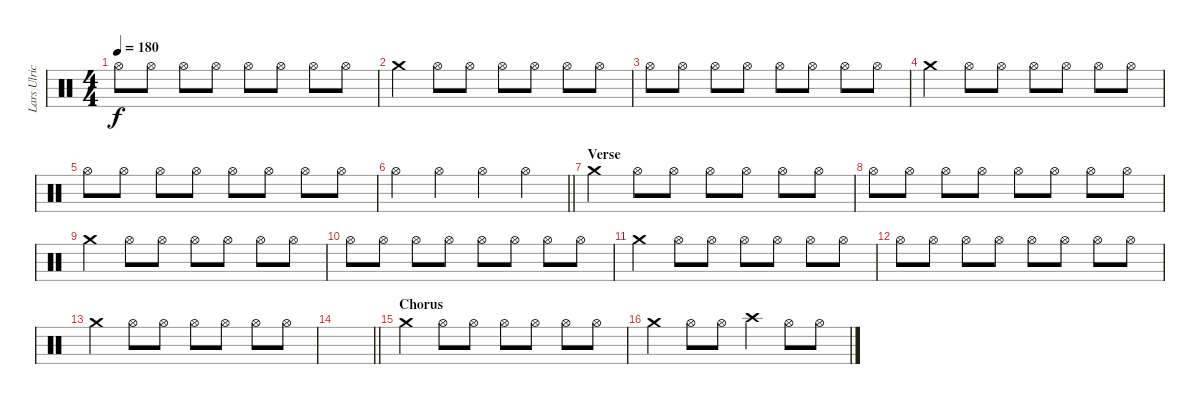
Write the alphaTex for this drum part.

\track ("Lars Ulrich" "Lars Ulric") {instrument percussion}
\staff {score}
\articulation defaults
\ts (4 4)
\tempo 180
\clef neutral
\ks c "Hi-Hat (open)".8{dy f} "Hi-Hat (open)".8 "Hi-Hat (open)".8 "Hi-Hat (open)".8 "Hi-Hat (open)".8 "Hi-Hat (open)".8 "Hi-Hat (open)".8 "Hi-Hat (open)".8
|
"Crash medium (hit)".4 "Hi-Hat (open)".8 "Hi-Hat (open)".8 "Hi-Hat (open)".8 "Hi-Hat (open)".8 "Hi-Hat (open)".8 "Hi-Hat (open)".8 |
"Hi-Hat (open)".8 "Hi-Hat (open)".8 "Hi-Hat (open)".8 "Hi-Hat (open)".8 "Hi-Hat (open)".8 "Hi-Hat (open)".8 "Hi-Hat (open)".8 "Hi-Hat (open)".8 |
"Crash medium (hit)".4 "Hi-Hat (open)".8 "Hi-Hat (open)".8 "Hi-Hat (open)".8 "Hi-Hat (open)".8 "Hi-Hat (open)".8 "Hi-Hat (open)".8 |
"Hi-Hat (open)".8 "Hi-Hat (open)".8 "Hi-Hat (open)".8 "Hi-Hat (open)".8 "Hi-Hat (open)".8 "Hi-Hat (open)".8 "Hi-Hat (open)".8 "Hi-Hat (open)".8 |
\barLineRight lightlight "Hi-Hat (open)".4 "Hi-Hat (open)".4 "Hi-Hat (open)".4 "Hi-Hat (open)".4
|
\section ("" "Verse")
"Crash medium (hit)".4 "Hi-Hat (open)".8 "Hi-Hat (open)".8 "Hi-Hat (open)".8 "Hi-Hat (open)".8 "Hi-Hat (open)".8 "Hi-Hat (open)".8 |
"Hi-Hat (open)".8 "Hi-Hat (open)".8 "Hi-Hat (open)".8 "Hi-Hat (open)".8 "Hi-Hat (open)".8 "Hi-Hat (open)".8 "Hi-Hat (open)".8 "Hi-Hat (open)".8 |
"Crash medium (hit)".4 "Hi-Hat (open)".8 "Hi-Hat (open)".8 "Hi-Hat (open)".8 "Hi-Hat (open)".8 "Hi-Hat (open)".8 "Hi-Hat (open)".8 |
"Hi-Hat (open)".8 "Hi-Hat (open)".8 "Hi-Hat (open)".8 "Hi-Hat (open)".8 "Hi-Hat (open)".8 "Hi-Hat (open)".8 "Hi-Hat (open)".8 "Hi-Hat (open)".8 |
"Crash medium (hit)".4 "Hi-Hat (open)".8 "Hi-Hat (open)".8 "Hi-Hat (open)".8 "Hi-Hat (open)".8 "Hi-Hat (open)".8 "Hi-Hat (open)".8 |
"Hi-Hat (open)".8 "Hi-Hat (open)".8 "Hi-Hat (open)".8 "Hi-Hat (open)".8 "Hi-Hat (open)".8 "Hi-Hat (open)".8 "Hi-Hat (open)".8 "Hi-Hat (open)".8 |
"Crash medium (hit)".4 "Hi-Hat (open)".8 "Hi-Hat (open)".8 "Hi-Hat (open)".8 "Hi-Hat (open)".8 "Hi-Hat (open)".8 "Hi-Hat (open)".8 |
\barLineRight lightlight
|
\section ("" "Chorus")
"Crash medium (hit)".4 "Hi-Hat (open)".8 "Hi-Hat (open)".8 "Hi-Hat (open)".8 "Hi-Hat (open)".8 "Hi-Hat (open)".8 "Hi-Hat (open)".8 |
"Crash medium (hit)".4 "Hi-Hat (open)".8 "Hi-Hat (open)".8 "Crash high (hit)".4 "Hi-Hat (open)".8 "Hi-Hat (open)".8
